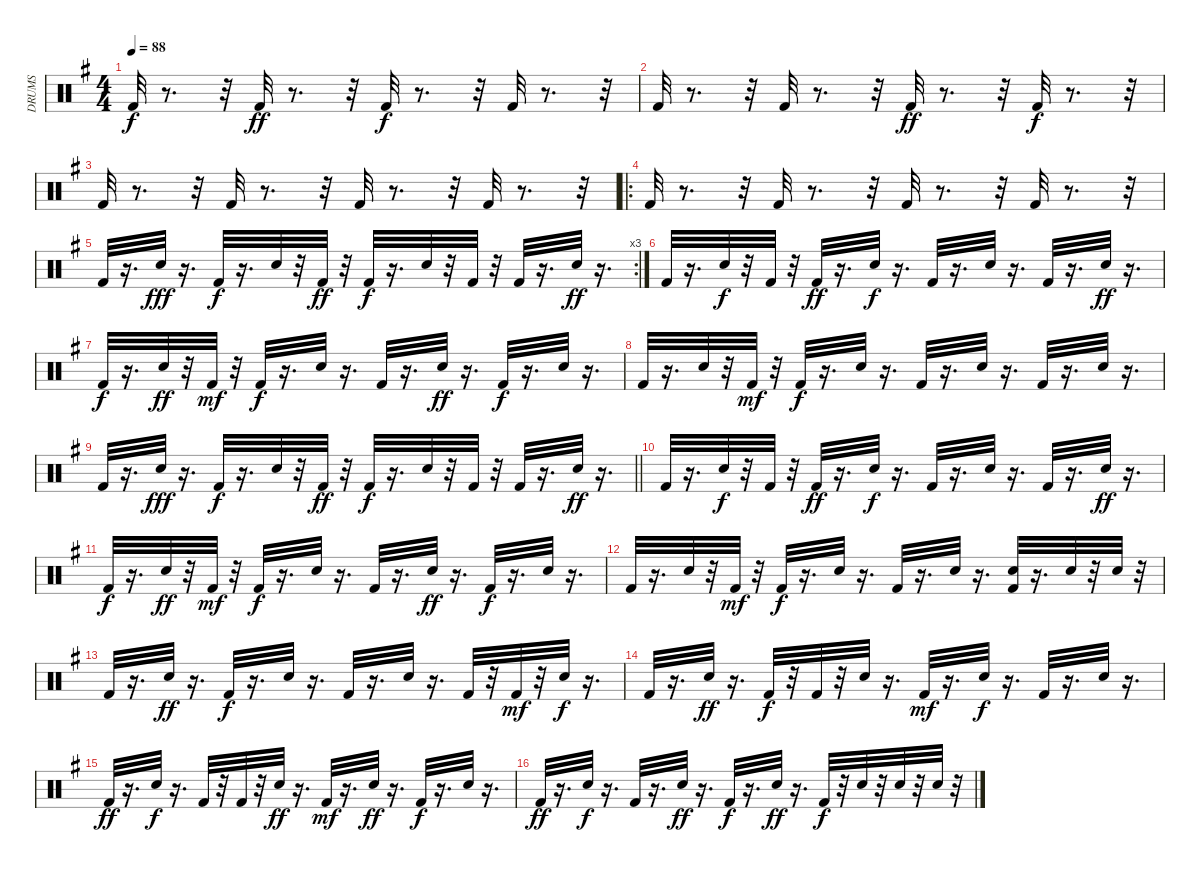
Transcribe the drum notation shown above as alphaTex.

\track ("DRUMS" "DRUMS") {instrument percussion}
\staff {score}
\articulation defaults
\ts (4 4)
\tempo 88
\clef neutral
\ks g "Kick (hit) 2".32{dy f}
r.8{d} r.32 "Kick (hit) 2".32{dy ff} r.8{d} r.32 "Kick (hit) 2".32{dy f} r.8{d} r.32 "Kick (hit) 2".32 r.8{d} r.32 |
"Kick (hit) 2".32 r.8{d} r.32 "Kick (hit) 2".32 r.8{d} r.32 "Kick (hit) 2".32{dy ff} r.8{d} r.32 "Kick (hit) 2".32{dy f} r.8{d} r.32 |
"Kick (hit) 2".32 r.8{d} r.32 "Kick (hit) 2".32 r.8{d} r.32 "Kick (hit) 2".32 r.8{d} r.32 "Kick (hit) 2".32 r.8{d} r.32 |
\ro "Kick (hit) 2".32
r.8{d} r.32 "Kick (hit) 2".32 r.8{d} r.32 "Kick (hit) 2".32 r.8{d} r.32 "Kick (hit) 2".32 r.8{d} r.32 |
\rc 3 "Kick (hit) 2".32
r.16{d} "Electric Snare (hit)".32{dy fff} r.16{d} "Kick (hit) 2".32{dy f} r.16{d} "Electric Snare (hit)".32 r.32 "Kick (hit) 2".32{dy ff} r.32 "Kick (hit) 2".32{dy f} r.16{d} "Electric Snare (hit)".32 r.32 "Kick (hit) 2".32 r.32 "Kick (hit) 2".32 r.16{d} "Electric Snare (hit)".32{dy ff} r.16{d} |
"Kick (hit) 2".32 r.16{d} "Electric Snare (hit)".32{dy f} r.32 "Kick (hit) 2".32 r.32 "Kick (hit) 2".32{dy ff} r.16{d} "Electric Snare (hit)".32{dy f} r.16{d} "Kick (hit) 2".32 r.16{d} "Electric Snare (hit)".32 r.16{d} "Kick (hit) 2".32 r.16{d} "Electric Snare (hit)".32{dy ff} r.16{d} |
"Kick (hit) 2".32{dy f} r.16{d} "Electric Snare (hit)".32{dy ff} r.32 "Kick (hit) 2".32{dy mf} r.32 "Kick (hit) 2".32{dy f} r.16{d} "Electric Snare (hit)".32 r.16{d} "Kick (hit) 2".32 r.16{d} "Electric Snare (hit)".32{dy ff} r.16{d} "Kick (hit) 2".32{dy f} r.16{d} "Electric Snare (hit)".32 r.16{d} |
"Kick (hit) 2".32 r.16{d} "Electric Snare (hit)".32 r.32 "Kick (hit) 2".32{dy mf} r.32 "Kick (hit) 2".32{dy f} r.16{d} "Electric Snare (hit)".32 r.16{d} "Kick (hit) 2".32 r.16{d} "Electric Snare (hit)".32 r.16{d} "Kick (hit) 2".32 r.16{d} "Electric Snare (hit)".32 r.16{d} |
\barLineRight lightlight "Kick (hit) 2".32
r.16{d} "Electric Snare (hit)".32{dy fff} r.16{d} "Kick (hit) 2".32{dy f} r.16{d} "Electric Snare (hit)".32 r.32 "Kick (hit) 2".32{dy ff} r.32 "Kick (hit) 2".32{dy f} r.16{d} "Electric Snare (hit)".32 r.32 "Kick (hit) 2".32 r.32 "Kick (hit) 2".32 r.16{d} "Electric Snare (hit)".32{dy ff} r.16{d} |
"Kick (hit) 2".32 r.16{d} "Electric Snare (hit)".32{dy f} r.32 "Kick (hit) 2".32 r.32 "Kick (hit) 2".32{dy ff} r.16{d} "Electric Snare (hit)".32{dy f} r.16{d} "Kick (hit) 2".32 r.16{d} "Electric Snare (hit)".32 r.16{d} "Kick (hit) 2".32 r.16{d} "Electric Snare (hit)".32{dy ff} r.16{d} |
"Kick (hit) 2".32{dy f} r.16{d} "Electric Snare (hit)".32{dy ff} r.32 "Kick (hit) 2".32{dy mf} r.32 "Kick (hit) 2".32{dy f} r.16{d} "Electric Snare (hit)".32 r.16{d} "Kick (hit) 2".32 r.16{d} "Electric Snare (hit)".32{dy ff} r.16{d} "Kick (hit) 2".32{dy f} r.16{d} "Electric Snare (hit)".32 r.16{d} |
"Kick (hit) 2".32 r.16{d} "Electric Snare (hit)".32 r.32 "Kick (hit) 2".32{dy mf} r.32 "Kick (hit) 2".32{dy f} r.16{d} "Electric Snare (hit)".32 r.16{d} "Kick (hit) 2".32 r.16{d} "Electric Snare (hit)".32 r.16{d} ("Kick (hit) 2" "Electric Snare (hit)").32 r.16{d} "Electric Snare (hit)".32 r.32 "Electric Snare (hit)".32 r.32 |
"Kick (hit) 2".32 r.16{d} "Electric Snare (hit)".32{dy ff} r.16{d} "Kick (hit) 2".32{dy f} r.16{d} "Electric Snare (hit)".32 r.16{d} "Kick (hit) 2".32 r.16{d} "Electric Snare (hit)".32 r.16{d} "Kick (hit) 2".32 r.32 "Kick (hit) 2".32{dy mf} r.32 "Electric Snare (hit)".32{dy f} r.16{d} |
"Kick (hit) 2".32 r.16{d} "Electric Snare (hit)".32{dy ff} r.16{d} "Kick (hit) 2".32{dy f} r.32 "Kick (hit) 2".32 r.32 "Electric Snare (hit)".32 r.16{d} "Kick (hit) 2".32{dy mf} r.16{d} "Electric Snare (hit)".32{dy f} r.16{d} "Kick (hit) 2".32 r.16{d} "Electric Snare (hit)".32 r.16{d} |
"Kick (hit) 2".32{dy ff} r.16{d} "Electric Snare (hit)".32{dy f} r.16{d} "Kick (hit) 2".32 r.32 "Kick (hit) 2".32 r.32 "Electric Snare (hit)".32{dy ff} r.16{d} "Kick (hit) 2".32{dy mf} r.16{d} "Electric Snare (hit)".32{dy ff} r.16{d} "Kick (hit) 2".32{dy f} r.16{d} "Electric Snare (hit)".32 r.16{d} |
"Kick (hit) 2".32{dy ff} r.16{d} "Electric Snare (hit)".32{dy f} r.16{d} "Kick (hit) 2".32 r.16{d} "Electric Snare (hit)".32{dy ff} r.16{d} "Kick (hit) 2".32{dy f} r.16{d} "Electric Snare (hit)".32{dy ff} r.16{d} "Kick (hit) 2".32{dy f} r.32 "Electric Snare (hit)".32 r.32 "Electric Snare (hit)".32 r.32 "Electric Snare (hit)".32 r.32
